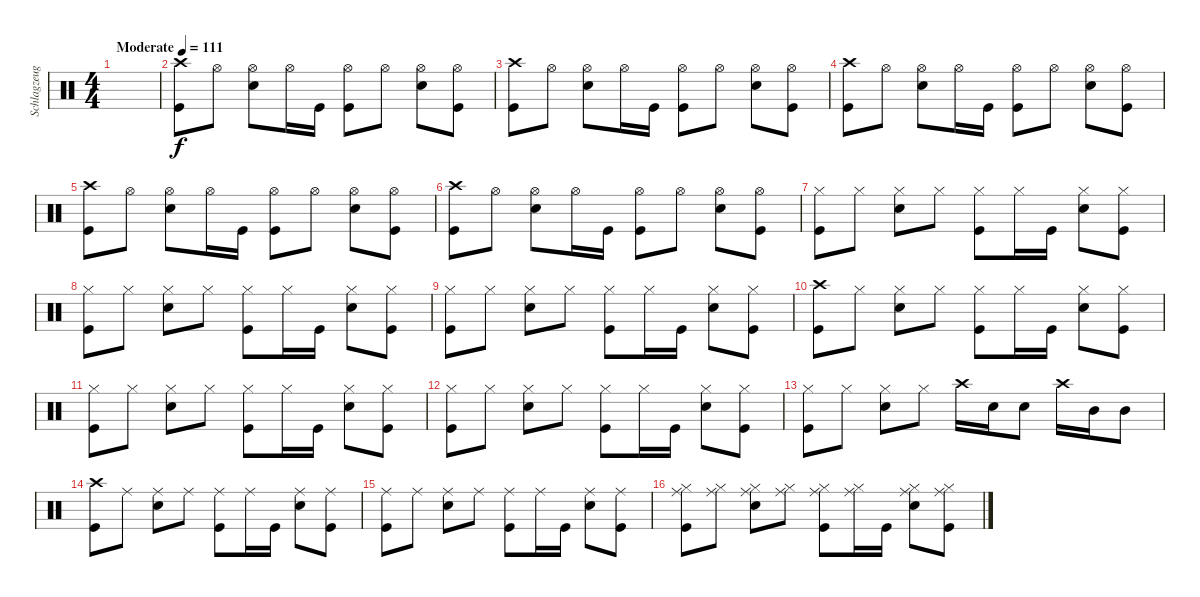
\track ("Schlagzeug" "Schlagzeug") {solo instrument percussion}
\staff {score}
\articulation defaults
\ts (4 4)
\tempo (111 "Moderate")
\clef neutral
\ks c
|
("Crash high (hit)" "Kick (hit)").8 "Hi-Hat (open)".8 ("Hi-Hat (open)" "Snare (hit) 2").8 "Hi-Hat (open)".16 "Kick (hit)".16 ("Kick (hit)" "Hi-Hat (open)").8 "Hi-Hat (open)".8 ("Hi-Hat (open)" "Snare (hit) 2").8 ("Kick (hit)" "Hi-Hat (open)").8 |
("Crash high (hit)" "Kick (hit)").8 "Hi-Hat (open)".8 ("Hi-Hat (open)" "Snare (hit) 2").8 "Hi-Hat (open)".16 "Kick (hit)".16 ("Kick (hit)" "Hi-Hat (open)").8 "Hi-Hat (open)".8 ("Hi-Hat (open)" "Snare (hit) 2").8 ("Kick (hit)" "Hi-Hat (open)").8 |
("Crash high (hit)" "Kick (hit)").8 "Hi-Hat (open)".8 ("Hi-Hat (open)" "Snare (hit) 2").8 "Hi-Hat (open)".16 "Kick (hit)".16 ("Kick (hit)" "Hi-Hat (open)").8 "Hi-Hat (open)".8 ("Hi-Hat (open)" "Snare (hit) 2").8 ("Kick (hit)" "Hi-Hat (open)").8 |
("Crash high (hit)" "Kick (hit)").8 "Hi-Hat (open)".8 ("Hi-Hat (open)" "Snare (hit) 2").8 "Hi-Hat (open)".16 "Kick (hit)".16 ("Kick (hit)" "Hi-Hat (open)").8 "Hi-Hat (open)".8 ("Hi-Hat (open)" "Snare (hit) 2").8 ("Kick (hit)" "Hi-Hat (open)").8 |
("Crash high (hit)" "Kick (hit)").8 "Hi-Hat (open)".8 ("Hi-Hat (open)" "Snare (hit) 2").8 "Hi-Hat (open)".16 "Kick (hit)".16 ("Kick (hit)" "Hi-Hat (open)").8 "Hi-Hat (open)".8 ("Hi-Hat (open)" "Snare (hit) 2").8 ("Kick (hit)" "Hi-Hat (open)").8 |
("Kick (hit)" "Hi-Hat (closed)").8 "Hi-Hat (closed)".8 ("Hi-Hat (closed)" "Snare (hit) 2").8 "Hi-Hat (closed)".8 ("Hi-Hat (closed)" "Kick (hit)").8 "Hi-Hat (closed)".16 "Kick (hit)".16 ("Hi-Hat (closed)" "Snare (hit) 2").8 ("Hi-Hat (closed)" "Kick (hit)").8 |
("Kick (hit)" "Hi-Hat (closed)").8 "Hi-Hat (closed)".8 ("Hi-Hat (closed)" "Snare (hit) 2").8 "Hi-Hat (closed)".8 ("Hi-Hat (closed)" "Kick (hit)").8 "Hi-Hat (closed)".16 "Kick (hit)".16 ("Hi-Hat (closed)" "Snare (hit) 2").8 ("Hi-Hat (closed)" "Kick (hit)").8 |
("Kick (hit)" "Hi-Hat (closed)").8 "Hi-Hat (closed)".8 ("Hi-Hat (closed)" "Snare (hit) 2").8 "Hi-Hat (closed)".8 ("Hi-Hat (closed)" "Kick (hit)").8 "Hi-Hat (closed)".16 "Kick (hit)".16 ("Hi-Hat (closed)" "Snare (hit) 2").8 ("Hi-Hat (closed)" "Kick (hit)").8 |
("Crash high (hit)" "Kick (hit)").8 "Hi-Hat (closed)".8 ("Hi-Hat (closed)" "Snare (hit) 2").8 "Hi-Hat (closed)".8 ("Hi-Hat (closed)" "Kick (hit)").8 "Hi-Hat (closed)".16 "Kick (hit)".16 ("Hi-Hat (closed)" "Snare (hit) 2").8 ("Hi-Hat (closed)" "Kick (hit)").8 |
("Kick (hit)" "Hi-Hat (closed)").8 "Hi-Hat (closed)".8 ("Hi-Hat (closed)" "Snare (hit) 2").8 "Hi-Hat (closed)".8 ("Hi-Hat (closed)" "Kick (hit)").8 "Hi-Hat (closed)".16 "Kick (hit)".16 ("Hi-Hat (closed)" "Snare (hit) 2").8 ("Hi-Hat (closed)" "Kick (hit)").8 |
("Kick (hit)" "Hi-Hat (closed)").8 "Hi-Hat (closed)".8 ("Hi-Hat (closed)" "Snare (hit) 2").8 "Hi-Hat (closed)".8 ("Hi-Hat (closed)" "Kick (hit)").8 "Hi-Hat (closed)".16 "Kick (hit)".16 ("Hi-Hat (closed)" "Snare (hit) 2").8 ("Hi-Hat (closed)" "Kick (hit)").8 |
("Kick (hit)" "Hi-Hat (closed)").8 "Hi-Hat (closed)".8 ("Hi-Hat (closed)" "Snare (hit) 2").8 "Hi-Hat (closed)".8 "Crash high (hit)".16 "Snare (hit) 2".16 "Snare (hit) 2".8 "Crash high (hit)".16 "Mid Tom (hit)".16 "Mid Tom (hit)".8 |
("Crash high (hit)" "Kick (hit)").8 "Ride (middle)".8 ("Ride (middle)" "Snare (hit) 2").8 "Ride (middle)".8 ("Ride (middle)" "Kick (hit)").8 "Ride (middle)".16 "Kick (hit)".16 ("Ride (middle)" "Snare (hit) 2").8 ("Ride (middle)" "Kick (hit)").8 |
("Kick (hit)" "Ride (middle)").8 "Ride (middle)".8 ("Ride (middle)" "Snare (hit) 2").8 "Ride (middle)".8 ("Ride (middle)" "Kick (hit)").8 "Ride (middle)".16 "Kick (hit)".16 ("Ride (middle)" "Snare (hit) 2").8 ("Ride (middle)" "Kick (hit)").8 |
("Kick (hit)" "Hi-Hat (closed)" "Ride (middle)").8 ("Ride (middle)" "Hi-Hat (closed)").8 ("Ride (middle)" "Hi-Hat (closed)" "Snare (hit) 2").8 ("Ride (middle)" "Hi-Hat (closed)").8 ("Ride (middle)" "Hi-Hat (closed)" "Kick (hit)").8 ("Ride (middle)" "Hi-Hat (closed)").16 "Kick (hit)".16 ("Ride (middle)" "Hi-Hat (closed)" "Snare (hit) 2").8 ("Hi-Hat (closed)" "Kick (hit)" "Ride (middle)").8
